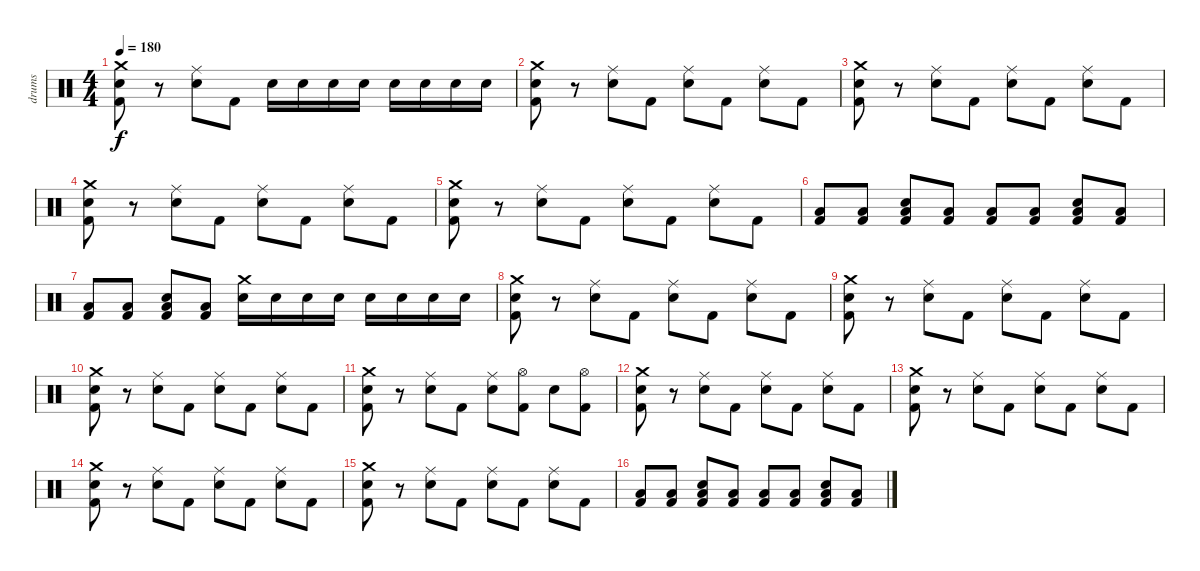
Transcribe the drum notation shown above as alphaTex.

\track ("drums" "drums") {instrument percussion}
\staff {score}
\articulation defaults
\ts (4 4)
\tempo 180
\clef neutral
\ks c
("Crash medium (hit)" "Snare (hit) 2" "Kick (hit) 2").8{dy f} r.8 ("Ride (middle)" "Snare (hit) 2").8 "Kick (hit) 2".8 "Snare (hit) 2".16 "Snare (hit) 2".16 "Snare (hit) 2".16 "Snare (hit) 2".16 "Snare (hit) 2".16 "Snare (hit) 2".16 "Snare (hit) 2".16 "Snare (hit) 2".16 |
("Crash medium (hit)" "Snare (hit) 2" "Kick (hit) 2").8 r.8 ("Ride (middle)" "Snare (hit) 2").8 "Kick (hit) 2".8 ("Ride (middle)" "Snare (hit) 2").8 "Kick (hit) 2".8 ("Ride (middle)" "Snare (hit) 2").8 "Kick (hit) 2".8 |
("Crash medium (hit)" "Snare (hit) 2" "Kick (hit) 2").8 r.8 ("Ride (middle)" "Snare (hit) 2").8 "Kick (hit) 2".8 ("Ride (middle)" "Snare (hit) 2").8 "Kick (hit) 2".8 ("Ride (middle)" "Snare (hit) 2").8 "Kick (hit) 2".8 |
("Crash medium (hit)" "Snare (hit) 2" "Kick (hit) 2").8 r.8 ("Ride (middle)" "Snare (hit) 2").8 "Kick (hit) 2".8 ("Ride (middle)" "Snare (hit) 2").8 "Kick (hit) 2".8 ("Ride (middle)" "Snare (hit) 2").8 "Kick (hit) 2".8 |
("Crash medium (hit)" "Snare (hit) 2" "Kick (hit) 2").8 r.8 ("Ride (middle)" "Snare (hit) 2").8 "Kick (hit) 2".8 ("Ride (middle)" "Snare (hit) 2").8 "Kick (hit) 2".8 ("Ride (middle)" "Snare (hit) 2").8 "Kick (hit) 2".8 |
("Low Floor Tom (hit)" "Kick (hit) 2").8 ("Low Floor Tom (hit)" "Kick (hit) 2").8 ("Low Floor Tom (hit)" "Snare (hit) 2" "Kick (hit) 2").8 ("Low Floor Tom (hit)" "Kick (hit) 2").8 ("Low Floor Tom (hit)" "Kick (hit) 2").8 ("Low Floor Tom (hit)" "Kick (hit) 2").8 ("Low Floor Tom (hit)" "Snare (hit) 2" "Kick (hit) 2").8 ("Low Floor Tom (hit)" "Kick (hit) 2").8 |
("Low Floor Tom (hit)" "Kick (hit) 2").8 ("Low Floor Tom (hit)" "Kick (hit) 2").8 ("Low Floor Tom (hit)" "Snare (hit) 2" "Kick (hit) 2").8 ("Low Floor Tom (hit)" "Kick (hit) 2").8 ("Crash medium (hit)" "Snare (hit) 2").16 "Snare (hit) 2".16 "Snare (hit) 2".16 "Snare (hit) 2".16 "Snare (hit) 2".16 "Snare (hit) 2".16 "Snare (hit) 2".16 "Snare (hit) 2".16 |
("Crash medium (hit)" "Snare (hit) 2" "Kick (hit) 2").8 r.8 ("Ride (middle)" "Snare (hit) 2").8 "Kick (hit) 2".8 ("Ride (middle)" "Snare (hit) 2").8 "Kick (hit) 2".8 ("Ride (middle)" "Snare (hit) 2").8 "Kick (hit) 2".8 |
("Crash medium (hit)" "Snare (hit) 2" "Kick (hit) 2").8 r.8 ("Ride (middle)" "Snare (hit) 2").8 "Kick (hit) 2".8 ("Ride (middle)" "Snare (hit) 2").8 "Kick (hit) 2".8 ("Ride (middle)" "Snare (hit) 2").8 "Kick (hit) 2".8 |
("Crash medium (hit)" "Snare (hit) 2" "Kick (hit) 2").8 r.8 ("Ride (middle)" "Snare (hit) 2").8 "Kick (hit) 2".8 ("Ride (middle)" "Snare (hit) 2").8 "Kick (hit) 2".8 ("Ride (middle)" "Snare (hit) 2").8 "Kick (hit) 2".8 |
("Crash medium (hit)" "Snare (hit) 2" "Kick (hit) 2").8 r.8 ("Ride (middle)" "Snare (hit) 2").8 "Kick (hit) 2".8 ("Ride (middle)" "Snare (hit) 2").8 ("Hi-Hat (open)" "Kick (hit) 2").8 "Snare (hit) 2".8 ("Hi-Hat (open)" "Kick (hit) 2").8 |
("Crash medium (hit)" "Snare (hit) 2" "Kick (hit) 2").8 r.8 ("Ride (middle)" "Snare (hit) 2").8 "Kick (hit) 2".8 ("Ride (middle)" "Snare (hit) 2").8 "Kick (hit) 2".8 ("Ride (middle)" "Snare (hit) 2").8 "Kick (hit) 2".8 |
("Crash medium (hit)" "Snare (hit) 2" "Kick (hit) 2").8 r.8 ("Ride (middle)" "Snare (hit) 2").8 "Kick (hit) 2".8 ("Ride (middle)" "Snare (hit) 2").8 "Kick (hit) 2".8 ("Ride (middle)" "Snare (hit) 2").8 "Kick (hit) 2".8 |
("Crash medium (hit)" "Snare (hit) 2" "Kick (hit) 2").8 r.8 ("Ride (middle)" "Snare (hit) 2").8 "Kick (hit) 2".8 ("Ride (middle)" "Snare (hit) 2").8 "Kick (hit) 2".8 ("Ride (middle)" "Snare (hit) 2").8 "Kick (hit) 2".8 |
("Crash medium (hit)" "Snare (hit) 2" "Kick (hit) 2").8 r.8 ("Ride (middle)" "Snare (hit) 2").8 "Kick (hit) 2".8 ("Ride (middle)" "Snare (hit) 2").8 "Kick (hit) 2".8 ("Ride (middle)" "Snare (hit) 2").8 "Kick (hit) 2".8 |
("Low Floor Tom (hit)" "Kick (hit) 2").8 ("Low Floor Tom (hit)" "Kick (hit) 2").8 ("Low Floor Tom (hit)" "Snare (hit) 2" "Kick (hit) 2").8 ("Low Floor Tom (hit)" "Kick (hit) 2").8 ("Low Floor Tom (hit)" "Kick (hit) 2").8 ("Low Floor Tom (hit)" "Kick (hit) 2").8 ("Low Floor Tom (hit)" "Snare (hit) 2" "Kick (hit) 2").8 ("Low Floor Tom (hit)" "Kick (hit) 2").8
